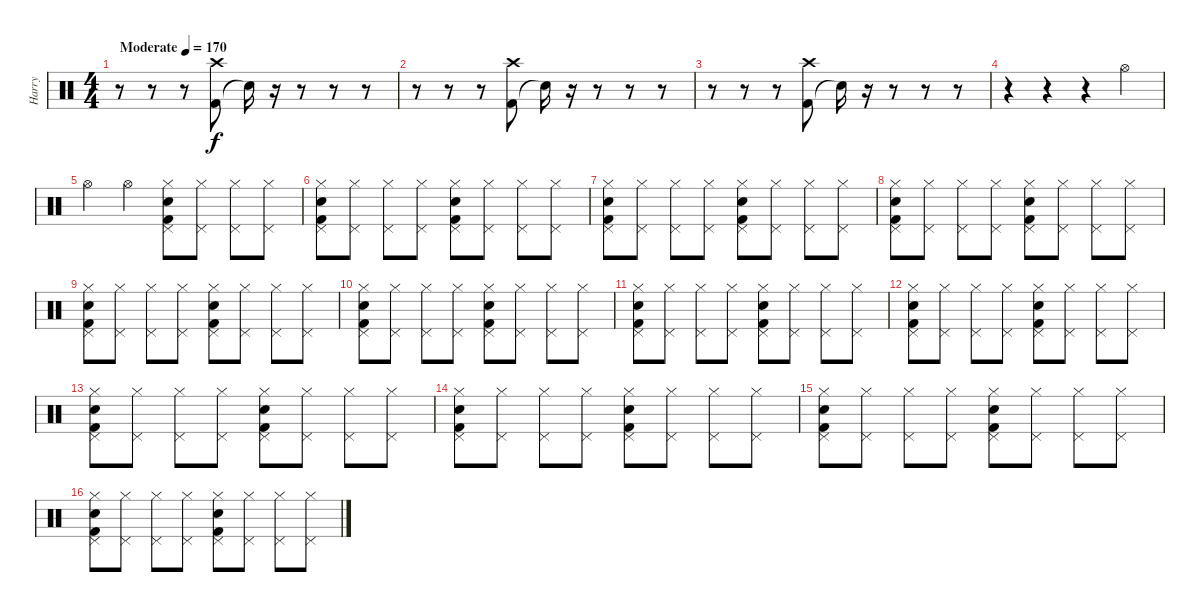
\track ("Harry" "Harry") {instrument percussion}
\staff {score}
\articulation defaults
\ts (4 4)
\tempo (170 "Moderate")
\clef neutral
\ks c
r.8{dy f} r.8 r.8 ("Kick (hit) 2" "Crash high (hit)").8 "Snare (hit)"{t}.16 r.16 r.8 r.8 r.8 |
r.8 r.8 r.8 ("Kick (hit) 2" "Crash high (hit)").8 "Snare (hit)"{t}.16 r.16 r.8 r.8 r.8 |
r.8 r.8 r.8 ("Kick (hit) 2" "Crash high (hit)").8 "Snare (hit)"{t}.16 r.16 r.8 r.8 r.8 |
r.4 r.4 r.4 "Hi-Hat (open)".4 |
"Hi-Hat (open)".4 "Hi-Hat (open)".4 ("Hi-Hat (closed)" "Pedal Hi-Hat (hit)" "Kick (hit) 2" "Snare (hit) 2").8 ("Hi-Hat (closed)" "Pedal Hi-Hat (hit)").8 ("Hi-Hat (closed)" "Pedal Hi-Hat (hit)").8 ("Hi-Hat (closed)" "Pedal Hi-Hat (hit)").8 |
("Hi-Hat (closed)" "Pedal Hi-Hat (hit)" "Kick (hit) 2" "Snare (hit) 2").8 ("Hi-Hat (closed)" "Pedal Hi-Hat (hit)").8 ("Hi-Hat (closed)" "Pedal Hi-Hat (hit)").8 ("Hi-Hat (closed)" "Pedal Hi-Hat (hit)").8 ("Hi-Hat (closed)" "Pedal Hi-Hat (hit)" "Kick (hit) 2" "Snare (hit) 2").8 ("Hi-Hat (closed)" "Pedal Hi-Hat (hit)").8 ("Hi-Hat (closed)" "Pedal Hi-Hat (hit)").8 ("Hi-Hat (closed)" "Pedal Hi-Hat (hit)").8 |
("Hi-Hat (closed)" "Pedal Hi-Hat (hit)" "Kick (hit) 2" "Snare (hit) 2").8 ("Hi-Hat (closed)" "Pedal Hi-Hat (hit)").8 ("Hi-Hat (closed)" "Pedal Hi-Hat (hit)").8 ("Hi-Hat (closed)" "Pedal Hi-Hat (hit)").8 ("Hi-Hat (closed)" "Pedal Hi-Hat (hit)" "Kick (hit) 2" "Snare (hit) 2").8 ("Hi-Hat (closed)" "Pedal Hi-Hat (hit)").8 ("Hi-Hat (closed)" "Pedal Hi-Hat (hit)").8 ("Hi-Hat (closed)" "Pedal Hi-Hat (hit)").8 |
("Hi-Hat (closed)" "Pedal Hi-Hat (hit)" "Kick (hit) 2" "Snare (hit) 2").8 ("Hi-Hat (closed)" "Pedal Hi-Hat (hit)").8 ("Hi-Hat (closed)" "Pedal Hi-Hat (hit)").8 ("Hi-Hat (closed)" "Pedal Hi-Hat (hit)").8 ("Hi-Hat (closed)" "Pedal Hi-Hat (hit)" "Kick (hit) 2" "Snare (hit) 2").8 ("Hi-Hat (closed)" "Pedal Hi-Hat (hit)").8 ("Hi-Hat (closed)" "Pedal Hi-Hat (hit)").8 ("Hi-Hat (closed)" "Pedal Hi-Hat (hit)").8 |
("Hi-Hat (closed)" "Pedal Hi-Hat (hit)" "Kick (hit) 2" "Snare (hit) 2").8 ("Hi-Hat (closed)" "Pedal Hi-Hat (hit)").8 ("Hi-Hat (closed)" "Pedal Hi-Hat (hit)").8 ("Hi-Hat (closed)" "Pedal Hi-Hat (hit)").8 ("Hi-Hat (closed)" "Pedal Hi-Hat (hit)" "Kick (hit) 2" "Snare (hit) 2").8 ("Hi-Hat (closed)" "Pedal Hi-Hat (hit)").8 ("Hi-Hat (closed)" "Pedal Hi-Hat (hit)").8 ("Hi-Hat (closed)" "Pedal Hi-Hat (hit)").8 |
("Hi-Hat (closed)" "Pedal Hi-Hat (hit)" "Kick (hit) 2" "Snare (hit) 2").8 ("Hi-Hat (closed)" "Pedal Hi-Hat (hit)").8 ("Hi-Hat (closed)" "Pedal Hi-Hat (hit)").8 ("Hi-Hat (closed)" "Pedal Hi-Hat (hit)").8 ("Hi-Hat (closed)" "Pedal Hi-Hat (hit)" "Kick (hit) 2" "Snare (hit) 2").8 ("Hi-Hat (closed)" "Pedal Hi-Hat (hit)").8 ("Hi-Hat (closed)" "Pedal Hi-Hat (hit)").8 ("Hi-Hat (closed)" "Pedal Hi-Hat (hit)").8 |
("Hi-Hat (closed)" "Pedal Hi-Hat (hit)" "Kick (hit) 2" "Snare (hit) 2").8 ("Hi-Hat (closed)" "Pedal Hi-Hat (hit)").8 ("Hi-Hat (closed)" "Pedal Hi-Hat (hit)").8 ("Hi-Hat (closed)" "Pedal Hi-Hat (hit)").8 ("Hi-Hat (closed)" "Pedal Hi-Hat (hit)" "Kick (hit) 2" "Snare (hit) 2").8 ("Hi-Hat (closed)" "Pedal Hi-Hat (hit)").8 ("Hi-Hat (closed)" "Pedal Hi-Hat (hit)").8 ("Hi-Hat (closed)" "Pedal Hi-Hat (hit)").8 |
("Hi-Hat (closed)" "Pedal Hi-Hat (hit)" "Kick (hit) 2" "Snare (hit) 2").8 ("Hi-Hat (closed)" "Pedal Hi-Hat (hit)").8 ("Hi-Hat (closed)" "Pedal Hi-Hat (hit)").8 ("Hi-Hat (closed)" "Pedal Hi-Hat (hit)").8 ("Hi-Hat (closed)" "Pedal Hi-Hat (hit)" "Kick (hit) 2" "Snare (hit) 2").8 ("Hi-Hat (closed)" "Pedal Hi-Hat (hit)").8 ("Hi-Hat (closed)" "Pedal Hi-Hat (hit)").8 ("Hi-Hat (closed)" "Pedal Hi-Hat (hit)").8 |
("Hi-Hat (closed)" "Pedal Hi-Hat (hit)" "Kick (hit) 2" "Snare (hit) 2").8 ("Hi-Hat (closed)" "Pedal Hi-Hat (hit)").8 ("Hi-Hat (closed)" "Pedal Hi-Hat (hit)").8 ("Hi-Hat (closed)" "Pedal Hi-Hat (hit)").8 ("Hi-Hat (closed)" "Pedal Hi-Hat (hit)" "Kick (hit) 2" "Snare (hit) 2").8 ("Hi-Hat (closed)" "Pedal Hi-Hat (hit)").8 ("Hi-Hat (closed)" "Pedal Hi-Hat (hit)").8 ("Hi-Hat (closed)" "Pedal Hi-Hat (hit)").8 |
("Hi-Hat (closed)" "Pedal Hi-Hat (hit)" "Kick (hit) 2" "Snare (hit) 2").8 ("Hi-Hat (closed)" "Pedal Hi-Hat (hit)").8 ("Hi-Hat (closed)" "Pedal Hi-Hat (hit)").8 ("Hi-Hat (closed)" "Pedal Hi-Hat (hit)").8 ("Hi-Hat (closed)" "Pedal Hi-Hat (hit)" "Kick (hit) 2" "Snare (hit) 2").8 ("Hi-Hat (closed)" "Pedal Hi-Hat (hit)").8 ("Hi-Hat (closed)" "Pedal Hi-Hat (hit)").8 ("Hi-Hat (closed)" "Pedal Hi-Hat (hit)").8 |
("Hi-Hat (closed)" "Pedal Hi-Hat (hit)" "Kick (hit) 2" "Snare (hit) 2").8 ("Hi-Hat (closed)" "Pedal Hi-Hat (hit)").8 ("Hi-Hat (closed)" "Pedal Hi-Hat (hit)").8 ("Hi-Hat (closed)" "Pedal Hi-Hat (hit)").8 ("Hi-Hat (closed)" "Pedal Hi-Hat (hit)" "Kick (hit) 2" "Snare (hit) 2").8 ("Hi-Hat (closed)" "Pedal Hi-Hat (hit)").8 ("Hi-Hat (closed)" "Pedal Hi-Hat (hit)").8 ("Hi-Hat (closed)" "Pedal Hi-Hat (hit)").8 |
("Hi-Hat (closed)" "Pedal Hi-Hat (hit)" "Kick (hit) 2" "Snare (hit) 2").8 ("Hi-Hat (closed)" "Pedal Hi-Hat (hit)").8 ("Hi-Hat (closed)" "Pedal Hi-Hat (hit)").8 ("Hi-Hat (closed)" "Pedal Hi-Hat (hit)").8 ("Hi-Hat (closed)" "Pedal Hi-Hat (hit)" "Kick (hit) 2" "Snare (hit) 2").8 ("Hi-Hat (closed)" "Pedal Hi-Hat (hit)").8 ("Hi-Hat (closed)" "Pedal Hi-Hat (hit)").8 ("Hi-Hat (closed)" "Pedal Hi-Hat (hit)").8
